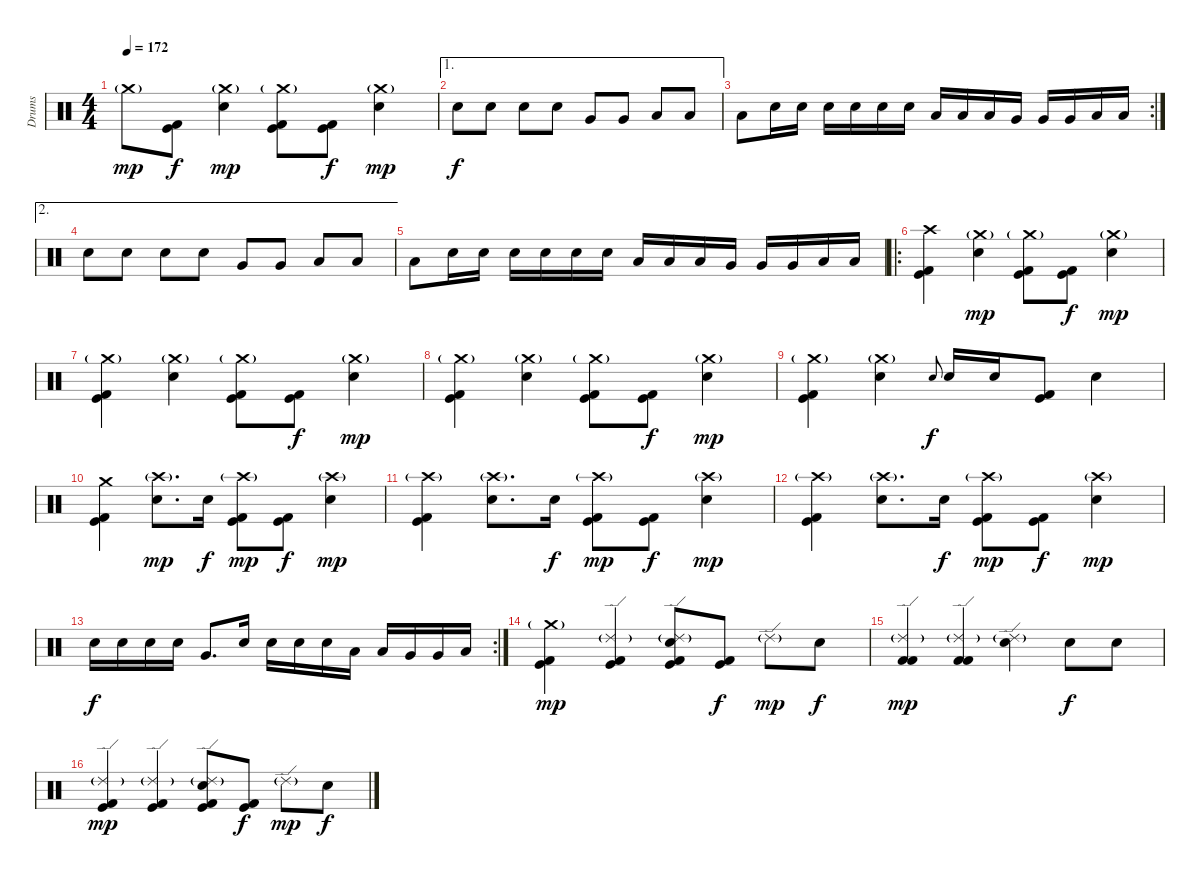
\track ("Drums" "Drums") {instrument percussion}
\staff {score}
\articulation defaults
\ts (4 4)
\tempo 172
\clef neutral
\ks c "Crash medium (hit)"{g}.8{dy mp}
("Kick (hit)" "Kick (hit) 2").8{dy f} ("Crash medium (hit)"{g} "Electric Snare (hit)").4{dy mp} ("Crash medium (hit)"{g} "Kick (hit)" "Kick (hit) 2").8 ("Kick (hit)" "Kick (hit) 2").8{dy f} ("Crash medium (hit)"{g} "Electric Snare (hit)").4{dy mp} |
\ae 1 "Electric Snare (hit)".8{dy f} "Electric Snare (hit)".8 "Electric Snare (hit)".8 "Electric Snare (hit)".8 "Very Low Tom (hit)".8 "Very Low Tom (hit)".8 "Low Floor Tom (hit)".8 "Low Floor Tom (hit)".8
|
\rc 2 "Low Tom (hit)".8 "Electric Snare (hit)".16 "Electric Snare (hit)".16 "Electric Snare (hit)".16 "Electric Snare (hit)".16 "Electric Snare (hit)".16 "Electric Snare (hit)".16 "Low Tom (hit)".16 "Low Tom (hit)".16 "Low Tom (hit)".16 "Very Low Tom (hit)".16 "Very Low Tom (hit)".16 "Very Low Tom (hit)".16 "Low Floor Tom (hit)".16 "Low Floor Tom (hit)".16
|
\ae 2 "Electric Snare (hit)".8 "Electric Snare (hit)".8 "Electric Snare (hit)".8 "Electric Snare (hit)".8 "Very Low Tom (hit)".8 "Very Low Tom (hit)".8 "Low Floor Tom (hit)".8 "Low Floor Tom (hit)".8
|
"Low Tom (hit)".8 "Electric Snare (hit)".16 "Electric Snare (hit)".16 "Electric Snare (hit)".16 "Electric Snare (hit)".16 "Electric Snare (hit)".16 "Electric Snare (hit)".16 "Low Tom (hit)".16 "Low Tom (hit)".16 "Low Tom (hit)".16 "Very Low Tom (hit)".16 "Very Low Tom (hit)".16 "Very Low Tom (hit)".16 "Low Floor Tom (hit)".16 "Low Floor Tom (hit)".16 |
\ro
("Crash high (hit)" "Kick (hit)" "Kick (hit) 2").4 ("Crash medium (hit)"{g} "Electric Snare (hit)").4{dy mp} ("Crash medium (hit)"{g} "Kick (hit)" "Kick (hit) 2").8 ("Kick (hit)" "Kick (hit) 2").8{dy f} ("Crash medium (hit)"{g} "Electric Snare (hit)").4{dy mp} |
("Crash medium (hit)"{g} "Kick (hit)" "Kick (hit) 2").4 ("Crash medium (hit)"{g} "Electric Snare (hit)").4 ("Crash medium (hit)"{g} "Kick (hit)" "Kick (hit) 2").8 ("Kick (hit)" "Kick (hit) 2").8{dy f} ("Crash medium (hit)"{g} "Electric Snare (hit)").4{dy mp} |
("Crash medium (hit)"{g} "Kick (hit)" "Kick (hit) 2").4 ("Crash medium (hit)"{g} "Electric Snare (hit)").4 ("Crash medium (hit)"{g} "Kick (hit)" "Kick (hit) 2").8 ("Kick (hit)" "Kick (hit) 2").8{dy f} ("Crash medium (hit)"{g} "Electric Snare (hit)").4{dy mp} |
("Crash medium (hit)"{g} "Kick (hit)" "Kick (hit) 2").4 ("Crash medium (hit)"{g} "Electric Snare (hit)").4 "Electric Snare (hit)".8{gr onbeat dy f} "Electric Snare (hit)".16 "Electric Snare (hit)".16 ("Kick (hit)" "Kick (hit) 2").8 "Electric Snare (hit)".4 |
("Crash medium (hit)" "Kick (hit)" "Kick (hit) 2").4 ("Crash high (hit)"{g} "Electric Snare (hit)").8{d dy mp} "Electric Snare (hit)".16{dy f} ("Crash high (hit)"{g} "Kick (hit)" "Kick (hit) 2").8{dy mp} ("Kick (hit)" "Kick (hit) 2").8{dy f} ("Crash high (hit)"{g} "Electric Snare (hit)").4{dy mp} |
("Crash high (hit)"{g} "Kick (hit)" "Kick (hit) 2").4 ("Crash high (hit)"{g} "Electric Snare (hit)").8{d} "Electric Snare (hit)".16{dy f} ("Crash high (hit)"{g} "Kick (hit)" "Kick (hit) 2").8{dy mp} ("Kick (hit)" "Kick (hit) 2").8{dy f} ("Crash high (hit)"{g} "Electric Snare (hit)").4{dy mp} |
("Crash high (hit)"{g} "Kick (hit)" "Kick (hit) 2").4 ("Crash high (hit)"{g} "Electric Snare (hit)").8{d} "Electric Snare (hit)".16{dy f} ("Crash high (hit)"{g} "Kick (hit)" "Kick (hit) 2").8{dy mp} ("Kick (hit)" "Kick (hit) 2").8{dy f} ("Crash high (hit)"{g} "Electric Snare (hit)").4{dy mp} |
\rc 2 "Electric Snare (hit)".16{dy f} "Electric Snare (hit)".16 "Electric Snare (hit)".16 "Electric Snare (hit)".16 "Very Low Tom (hit)".8{d} "Electric Snare (hit)".16 "Electric Snare (hit)".16 "Electric Snare (hit)".16 "Electric Snare (hit)".16 "Low Tom (hit)".16 "Low Tom (hit)".16 "Very Low Tom (hit)".16 "Very Low Tom (hit)".16 "Low Floor Tom (hit)".16
|
("Crash medium (hit)"{g} "Kick (hit)" "Kick (hit) 2").4{dy mp} ("Ride (edge) 2"{g} "Kick (hit)" "Kick (hit) 2").4 ("Ride (edge) 2"{g} "Electric Snare (hit)" "Kick (hit)" "Kick (hit) 2").8 ("Kick (hit)" "Kick (hit) 2").8{dy f} "Ride (edge) 2"{g}.8{dy mp} "Electric Snare (hit)".8{dy f} |
("Ride (edge) 2"{g} "Kick (hit) 2" "Kick (hit) 2").4{dy mp} ("Ride (edge) 2"{g} "Kick (hit) 2" "Kick (hit) 2").4 ("Ride (edge) 2"{g} "Electric Snare (hit)").4 "Electric Snare (hit)".8{dy f} "Electric Snare (hit)".8 |
("Ride (edge) 2"{g} "Kick (hit)" "Kick (hit) 2").4{dy mp} ("Ride (edge) 2"{g} "Kick (hit)" "Kick (hit) 2").4 ("Ride (edge) 2"{g} "Electric Snare (hit)" "Kick (hit)" "Kick (hit) 2").8 ("Kick (hit)" "Kick (hit) 2").8{dy f} "Ride (edge) 2"{g}.8{dy mp} "Electric Snare (hit)".8{dy f}
